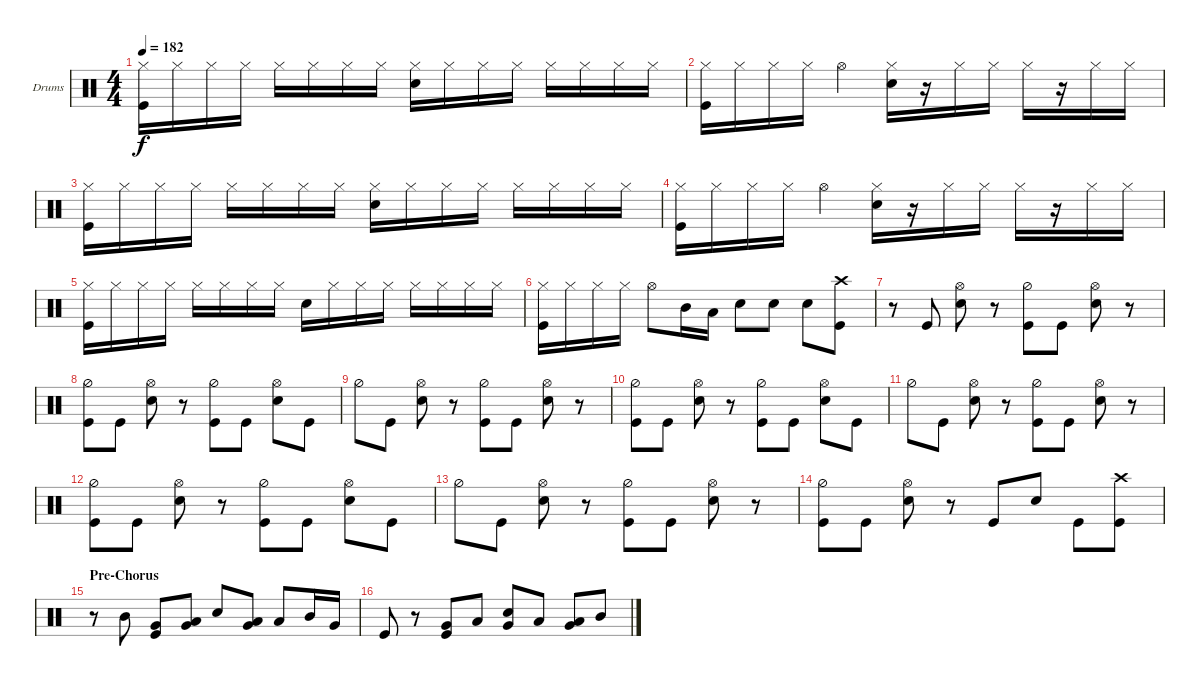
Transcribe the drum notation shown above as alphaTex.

\defaultSystemsLayout 4
\bracketExtendMode groupsimilarinstruments
\firstSystemTrackNameOrientation horizontal
\otherSystemsTrackNameOrientation horizontal
\track ("Drumkit" "Drums") {instrument percussion}
\staff {score}
\articulation defaults
\ts (4 4)
\tempo 182
\clef neutral
\ks c
("Kick (hit)" "Hi-Hat (closed)").16{dy f} "Hi-Hat (closed)".16 "Hi-Hat (closed)".16 "Hi-Hat (closed)".16 "Hi-Hat (closed)".16 "Hi-Hat (closed)".16 "Hi-Hat (closed)".16 "Hi-Hat (closed)".16 ("Hi-Hat (closed)" "Snare (hit) 2").16 "Hi-Hat (closed)".16 "Hi-Hat (closed)".16 "Hi-Hat (closed)".16 "Hi-Hat (closed)".16 "Hi-Hat (closed)".16 "Hi-Hat (closed)".16 "Hi-Hat (closed)".16 |
("Hi-Hat (closed)" "Kick (hit)").16 "Hi-Hat (closed)".16 "Hi-Hat (closed)".16 "Hi-Hat (closed)".16 "Hi-Hat (open)".4 ("Hi-Hat (closed)" "Snare (hit) 2").16 r.16 "Hi-Hat (closed)".16 "Hi-Hat (closed)".16 "Hi-Hat (closed)".16 r.16 "Hi-Hat (closed)".16 "Hi-Hat (closed)".16 |
("Hi-Hat (closed)" "Kick (hit)").16 "Hi-Hat (closed)".16 "Hi-Hat (closed)".16 "Hi-Hat (closed)".16 "Hi-Hat (closed)".16 "Hi-Hat (closed)".16 "Hi-Hat (closed)".16 "Hi-Hat (closed)".16 ("Hi-Hat (closed)" "Snare (hit) 2").16 "Hi-Hat (closed)".16 "Hi-Hat (closed)".16 "Hi-Hat (closed)".16 "Hi-Hat (closed)".16 "Hi-Hat (closed)".16 "Hi-Hat (closed)".16 "Hi-Hat (closed)".16 |
("Hi-Hat (closed)" "Kick (hit)").16 "Hi-Hat (closed)".16 "Hi-Hat (closed)".16 "Hi-Hat (closed)".16 "Hi-Hat (open)".4 ("Hi-Hat (closed)" "Snare (hit) 2").16 r.16 "Hi-Hat (closed)".16 "Hi-Hat (closed)".16 "Hi-Hat (closed)".16 r.16 "Hi-Hat (closed)".16 "Hi-Hat (closed)".16 |
("Hi-Hat (closed)" "Kick (hit)").16 "Hi-Hat (closed)".16 "Hi-Hat (closed)".16 "Hi-Hat (closed)".16 "Hi-Hat (closed)".16 "Hi-Hat (closed)".16 "Hi-Hat (closed)".16 "Hi-Hat (closed)".16 "Snare (hit) 2".16 "Hi-Hat (closed)".16 "Hi-Hat (closed)".16 "Hi-Hat (closed)".16 "Hi-Hat (closed)".16 "Hi-Hat (closed)".16 "Hi-Hat (closed)".16 "Hi-Hat (closed)".16 |
("Kick (hit)" "Hi-Hat (closed)").16 "Hi-Hat (closed)".16 "Hi-Hat (closed)".16 "Hi-Hat (closed)".16 "Hi-Hat (open)".8 "Mid Tom (hit)".16 "Low Tom (hit)".16 "Snare (hit) 2".8 "Snare (hit) 2".8 "Snare (hit) 2".8 ("Kick (hit)" "Crash high (hit)").8 |
r.8 "Kick (hit)".8 ("Snare (hit) 2" "Hi-Hat (open)").8 r.8 ("Kick (hit)" "Hi-Hat (half)").8 "Kick (hit)".8 ("Snare (hit) 2" "Hi-Hat (open)").8 r.8 |
("Kick (hit)" "Hi-Hat (half)").8 "Kick (hit)".8 ("Snare (hit) 2" "Hi-Hat (open)").8 r.8 ("Kick (hit)" "Hi-Hat (half)").8 "Kick (hit)".8 ("Snare (hit) 2" "Hi-Hat (open)").8 "Kick (hit)".8 |
"Hi-Hat (half)".8 "Kick (hit)".8 ("Snare (hit) 2" "Hi-Hat (open)").8 r.8 ("Kick (hit)" "Hi-Hat (half)").8 "Kick (hit)".8 ("Snare (hit) 2" "Hi-Hat (open)").8 r.8 |
("Kick (hit)" "Hi-Hat (half)").8 "Kick (hit)".8 ("Snare (hit) 2" "Hi-Hat (open)").8 r.8 ("Kick (hit)" "Hi-Hat (half)").8 "Kick (hit)".8 ("Snare (hit) 2" "Hi-Hat (open)").8 "Kick (hit)".8 |
"Hi-Hat (half)".8 "Kick (hit)".8 ("Snare (hit) 2" "Hi-Hat (open)").8 r.8 ("Kick (hit)" "Hi-Hat (half)").8 "Kick (hit)".8 ("Snare (hit) 2" "Hi-Hat (open)").8 r.8 |
("Kick (hit)" "Hi-Hat (half)").8 "Kick (hit)".8 ("Snare (hit) 2" "Hi-Hat (open)").8 r.8 ("Kick (hit)" "Hi-Hat (half)").8 "Kick (hit)".8 ("Snare (hit) 2" "Hi-Hat (open)").8 "Kick (hit)".8 |
"Hi-Hat (half)".8 "Kick (hit)".8 ("Snare (hit) 2" "Hi-Hat (open)").8 r.8 ("Kick (hit)" "Hi-Hat (half)").8 "Kick (hit)".8 ("Snare (hit) 2" "Hi-Hat (open)").8 r.8 |
("Kick (hit)" "Hi-Hat (half)").8 "Kick (hit)".8 ("Snare (hit) 2" "Hi-Hat (open)").8 r.8 "Kick (hit)".8 "Snare (hit) 2".8 "Kick (hit)".8 ("Kick (hit)" "Crash high (hit)").8 |
\section ("" "Pre-Chorus")
r.8 "Mid Tom (hit)".8 ("Very Low Tom (hit)" "Kick (hit)").8 ("Very Low Tom (hit)" "Low Tom (hit)").8 "Snare (hit) 2".8 ("Very Low Tom (hit)" "Low Tom (hit)").8 "Low Tom (hit)".8 "Mid Tom (hit)".16 "Very Low Tom (hit)".16 |
"Kick (hit)".8 r.8 ("Kick (hit)" "Very Low Tom (hit)").8 "Low Tom (hit)".8 ("Snare (hit) 2" "Very Low Tom (hit)").8 "Low Tom (hit)".8 ("Very Low Tom (hit)" "Low Tom (hit)").8 "Mid Tom (hit)".8
